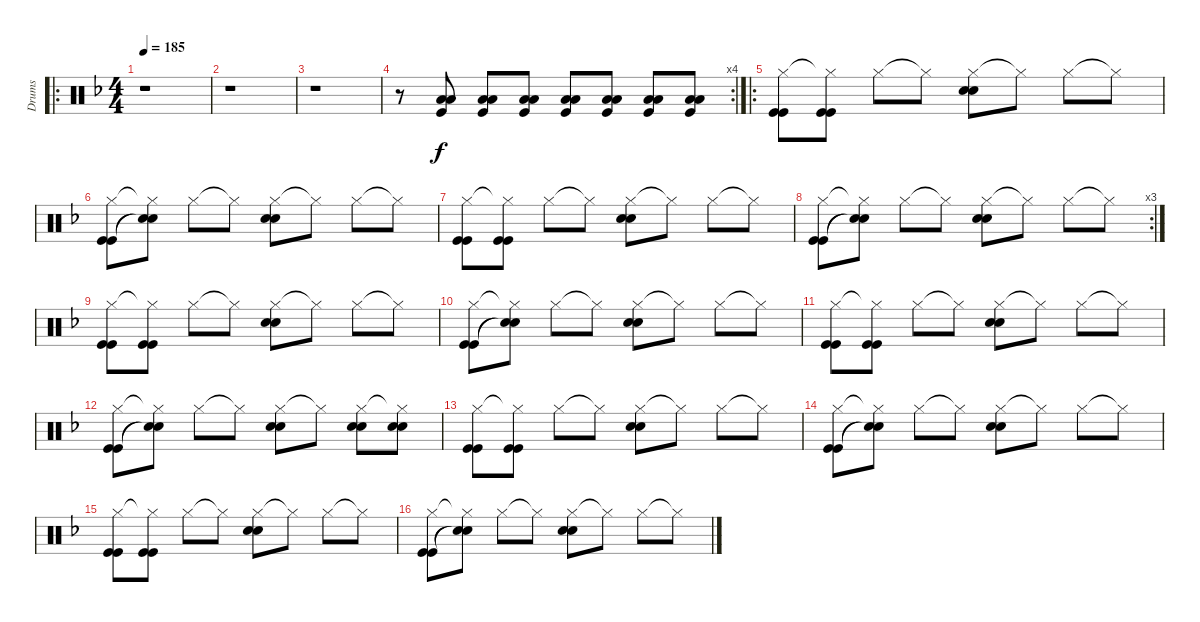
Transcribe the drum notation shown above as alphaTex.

\track ("Drums" "Drums") {instrument percussion}
\staff {score}
\articulation defaults
\ro
\ts (4 4)
\tempo 185
\clef neutral
\ks f
r.1{dy f} |
r.1 |
r.1 |
\rc 4
r.8 ("Low Floor Tom (hit)" "Low Tom (hit)" "Kick (hit)").8 ("Low Floor Tom (hit)" "Low Tom (hit)" "Kick (hit)").8 ("Low Floor Tom (hit)" "Low Tom (hit)" "Kick (hit)").8 ("Low Floor Tom (hit)" "Low Tom (hit)" "Kick (hit)").8 ("Low Floor Tom (hit)" "Low Tom (hit)" "Kick (hit)").8 ("Low Floor Tom (hit)" "Low Tom (hit)" "Kick (hit)").8 ("Low Floor Tom (hit)" "Low Tom (hit)" "Kick (hit)").8 |
\ro
("Hi-Hat (closed)" "Kick (hit)" "Kick (hit)").8 ("Hi-Hat (closed)"{t} "Kick (hit)" "Kick (hit)").8 "Hi-Hat (closed)".8 "Hi-Hat (closed)"{t}.8 ("Hi-Hat (closed)" "Snare (hit) 2" "Snare (hit) 2").8 "Hi-Hat (closed)"{t}.8 "Hi-Hat (closed)".8 "Hi-Hat (closed)"{t}.8 |
("Hi-Hat (closed)" "Kick (hit)" "Kick (hit)").8 ("Hi-Hat (closed)"{t} "Snare (hit)"{t} "Snare (hit)"{t}).8 "Hi-Hat (closed)".8 "Hi-Hat (closed)"{t}.8 ("Hi-Hat (closed)" "Snare (hit) 2" "Snare (hit) 2").8 "Hi-Hat (closed)"{t}.8 "Hi-Hat (closed)".8 "Hi-Hat (closed)"{t}.8 |
("Hi-Hat (closed)" "Kick (hit)" "Kick (hit)").8 ("Hi-Hat (closed)"{t} "Kick (hit)" "Kick (hit)").8 "Hi-Hat (closed)".8 "Hi-Hat (closed)"{t}.8 ("Hi-Hat (closed)" "Snare (hit) 2" "Snare (hit) 2").8 "Hi-Hat (closed)"{t}.8 "Hi-Hat (closed)".8 "Hi-Hat (closed)"{t}.8 |
\rc 3
("Hi-Hat (closed)" "Kick (hit)" "Kick (hit)").8 ("Hi-Hat (closed)"{t} "Snare (hit)"{t} "Snare (hit)"{t}).8 "Hi-Hat (closed)".8 "Hi-Hat (closed)"{t}.8 ("Hi-Hat (closed)" "Snare (hit) 2" "Snare (hit) 2").8 "Hi-Hat (closed)"{t}.8 "Hi-Hat (closed)".8 "Hi-Hat (closed)"{t}.8 |
("Hi-Hat (closed)" "Kick (hit)" "Kick (hit)").8 ("Hi-Hat (closed)"{t} "Kick (hit)" "Kick (hit)").8 "Hi-Hat (closed)".8 "Hi-Hat (closed)"{t}.8 ("Hi-Hat (closed)" "Snare (hit) 2" "Snare (hit) 2").8 "Hi-Hat (closed)"{t}.8 "Hi-Hat (closed)".8 "Hi-Hat (closed)"{t}.8 |
("Hi-Hat (closed)" "Kick (hit)" "Kick (hit)").8 ("Hi-Hat (closed)"{t} "Snare (hit)"{t} "Snare (hit)"{t}).8 "Hi-Hat (closed)".8 "Hi-Hat (closed)"{t}.8 ("Hi-Hat (closed)" "Snare (hit) 2" "Snare (hit) 2").8 "Hi-Hat (closed)"{t}.8 "Hi-Hat (closed)".8 "Hi-Hat (closed)"{t}.8 |
("Hi-Hat (closed)" "Kick (hit)" "Kick (hit)").8 ("Hi-Hat (closed)"{t} "Kick (hit)" "Kick (hit)").8 "Hi-Hat (closed)".8 "Hi-Hat (closed)"{t}.8 ("Hi-Hat (closed)" "Snare (hit) 2" "Snare (hit) 2").8 "Hi-Hat (closed)"{t}.8 "Hi-Hat (closed)".8 "Hi-Hat (closed)"{t}.8 |
("Hi-Hat (closed)" "Kick (hit)" "Kick (hit)").8 ("Hi-Hat (closed)"{t} "Snare (hit)"{t} "Snare (hit)"{t}).8 "Hi-Hat (closed)".8 "Hi-Hat (closed)"{t}.8 ("Hi-Hat (closed)" "Snare (hit) 2" "Snare (hit) 2").8 "Hi-Hat (closed)"{t}.8 ("Hi-Hat (closed)" "Electric Snare (hit)" "Electric Snare (hit)").8 ("Hi-Hat (closed)"{t} "Electric Snare (hit)" "Electric Snare (hit)").8 |
("Hi-Hat (closed)" "Kick (hit)" "Kick (hit)").8 ("Hi-Hat (closed)"{t} "Kick (hit)" "Kick (hit)").8 "Hi-Hat (closed)".8 "Hi-Hat (closed)"{t}.8 ("Hi-Hat (closed)" "Snare (hit) 2" "Snare (hit) 2").8 "Hi-Hat (closed)"{t}.8 "Hi-Hat (closed)".8 "Hi-Hat (closed)"{t}.8 |
("Hi-Hat (closed)" "Kick (hit)" "Kick (hit)").8 ("Hi-Hat (closed)"{t} "Snare (hit)"{t} "Snare (hit)"{t}).8 "Hi-Hat (closed)".8 "Hi-Hat (closed)"{t}.8 ("Hi-Hat (closed)" "Snare (hit) 2" "Snare (hit) 2").8 "Hi-Hat (closed)"{t}.8 "Hi-Hat (closed)".8 "Hi-Hat (closed)"{t}.8 |
("Hi-Hat (closed)" "Kick (hit)" "Kick (hit)").8 ("Hi-Hat (closed)"{t} "Kick (hit)" "Kick (hit)").8 "Hi-Hat (closed)".8 "Hi-Hat (closed)"{t}.8 ("Hi-Hat (closed)" "Snare (hit) 2" "Snare (hit) 2").8 "Hi-Hat (closed)"{t}.8 "Hi-Hat (closed)".8 "Hi-Hat (closed)"{t}.8 |
("Hi-Hat (closed)" "Kick (hit)" "Kick (hit)").8 ("Hi-Hat (closed)"{t} "Snare (hit)"{t} "Snare (hit)"{t}).8 "Hi-Hat (closed)".8 "Hi-Hat (closed)"{t}.8 ("Hi-Hat (closed)" "Snare (hit) 2" "Snare (hit) 2").8 "Hi-Hat (closed)"{t}.8 "Hi-Hat (closed)".8 "Hi-Hat (closed)"{t}.8
